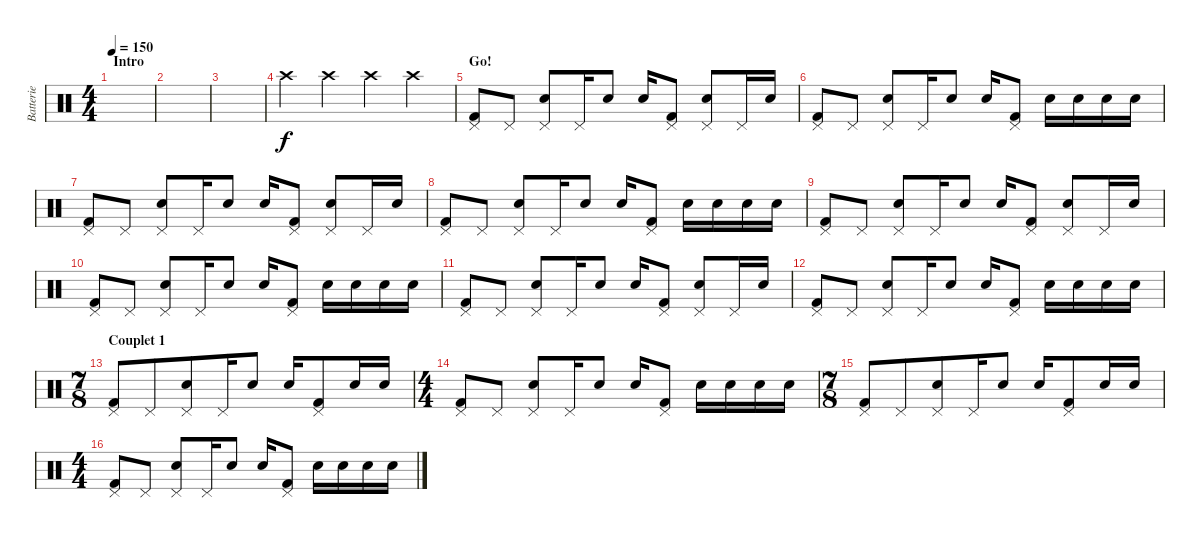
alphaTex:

\track ("Batterie" "Batterie") {instrument percussion}
\staff {score}
\articulation defaults
\ts (4 4)
\section ("" "Intro")
\tempo 150
\clef neutral
\ks c
|
|
|
"Crash high (hit)".4 "Crash high (hit)".4 "Crash high (hit)".4 "Crash high (hit)".4 |
\section ("" "Go!")
("Pedal Hi-Hat (hit)" "Kick (hit) 2").8 "Pedal Hi-Hat (hit)".8 ("Pedal Hi-Hat (hit)" "Electric Snare (hit)").8 "Pedal Hi-Hat (hit)".16 "Electric Snare (hit)".8 "Electric Snare (hit)".16 ("Pedal Hi-Hat (hit)" "Kick (hit) 2").8 ("Pedal Hi-Hat (hit)" "Electric Snare (hit)").8 "Pedal Hi-Hat (hit)".16 "Electric Snare (hit)".16 |
("Pedal Hi-Hat (hit)" "Kick (hit) 2").8 "Pedal Hi-Hat (hit)".8 ("Pedal Hi-Hat (hit)" "Electric Snare (hit)").8 "Pedal Hi-Hat (hit)".16 "Electric Snare (hit)".8 "Electric Snare (hit)".16 ("Pedal Hi-Hat (hit)" "Kick (hit) 2").8 "Electric Snare (hit)".16 "Electric Snare (hit)".16 "Electric Snare (hit)".16 "Electric Snare (hit)".16 |
("Pedal Hi-Hat (hit)" "Kick (hit) 2").8 "Pedal Hi-Hat (hit)".8 ("Pedal Hi-Hat (hit)" "Electric Snare (hit)").8 "Pedal Hi-Hat (hit)".16 "Electric Snare (hit)".8 "Electric Snare (hit)".16 ("Pedal Hi-Hat (hit)" "Kick (hit) 2").8 ("Pedal Hi-Hat (hit)" "Electric Snare (hit)").8 "Pedal Hi-Hat (hit)".16 "Electric Snare (hit)".16 |
("Pedal Hi-Hat (hit)" "Kick (hit) 2").8 "Pedal Hi-Hat (hit)".8 ("Pedal Hi-Hat (hit)" "Electric Snare (hit)").8 "Pedal Hi-Hat (hit)".16 "Electric Snare (hit)".8 "Electric Snare (hit)".16 ("Pedal Hi-Hat (hit)" "Kick (hit) 2").8 "Electric Snare (hit)".16 "Electric Snare (hit)".16 "Electric Snare (hit)".16 "Electric Snare (hit)".16 |
("Pedal Hi-Hat (hit)" "Kick (hit) 2").8 "Pedal Hi-Hat (hit)".8 ("Pedal Hi-Hat (hit)" "Electric Snare (hit)").8 "Pedal Hi-Hat (hit)".16 "Electric Snare (hit)".8 "Electric Snare (hit)".16 ("Pedal Hi-Hat (hit)" "Kick (hit) 2").8 ("Pedal Hi-Hat (hit)" "Electric Snare (hit)").8 "Pedal Hi-Hat (hit)".16 "Electric Snare (hit)".16 |
("Pedal Hi-Hat (hit)" "Kick (hit) 2").8 "Pedal Hi-Hat (hit)".8 ("Pedal Hi-Hat (hit)" "Electric Snare (hit)").8 "Pedal Hi-Hat (hit)".16 "Electric Snare (hit)".8 "Electric Snare (hit)".16 ("Pedal Hi-Hat (hit)" "Kick (hit) 2").8 "Electric Snare (hit)".16 "Electric Snare (hit)".16 "Electric Snare (hit)".16 "Electric Snare (hit)".16 |
("Pedal Hi-Hat (hit)" "Kick (hit) 2").8 "Pedal Hi-Hat (hit)".8 ("Pedal Hi-Hat (hit)" "Electric Snare (hit)").8 "Pedal Hi-Hat (hit)".16 "Electric Snare (hit)".8 "Electric Snare (hit)".16 ("Pedal Hi-Hat (hit)" "Kick (hit) 2").8 ("Pedal Hi-Hat (hit)" "Electric Snare (hit)").8 "Pedal Hi-Hat (hit)".16 "Electric Snare (hit)".16 |
("Pedal Hi-Hat (hit)" "Kick (hit) 2").8 "Pedal Hi-Hat (hit)".8 ("Pedal Hi-Hat (hit)" "Electric Snare (hit)").8 "Pedal Hi-Hat (hit)".16 "Electric Snare (hit)".8 "Electric Snare (hit)".16 ("Pedal Hi-Hat (hit)" "Kick (hit) 2").8 "Electric Snare (hit)".16 "Electric Snare (hit)".16 "Electric Snare (hit)".16 "Electric Snare (hit)".16 |
\ts (7 8)
\section ("" "Couplet 1")
("Pedal Hi-Hat (hit)" "Kick (hit) 2").8 "Pedal Hi-Hat (hit)".8 ("Pedal Hi-Hat (hit)" "Electric Snare (hit)").8 "Pedal Hi-Hat (hit)".16 "Electric Snare (hit)".8 "Electric Snare (hit)".16 ("Pedal Hi-Hat (hit)" "Kick (hit) 2").8 "Electric Snare (hit)".16 "Electric Snare (hit)".16 |
\ts (4 4)
("Pedal Hi-Hat (hit)" "Kick (hit) 2").8 "Pedal Hi-Hat (hit)".8 ("Pedal Hi-Hat (hit)" "Electric Snare (hit)").8 "Pedal Hi-Hat (hit)".16 "Electric Snare (hit)".8 "Electric Snare (hit)".16 ("Pedal Hi-Hat (hit)" "Kick (hit) 2").8 "Electric Snare (hit)".16 "Electric Snare (hit)".16 "Electric Snare (hit)".16 "Electric Snare (hit)".16 |
\ts (7 8)
("Pedal Hi-Hat (hit)" "Kick (hit) 2").8 "Pedal Hi-Hat (hit)".8 ("Pedal Hi-Hat (hit)" "Electric Snare (hit)").8 "Pedal Hi-Hat (hit)".16 "Electric Snare (hit)".8 "Electric Snare (hit)".16 ("Pedal Hi-Hat (hit)" "Kick (hit) 2").8 "Electric Snare (hit)".16 "Electric Snare (hit)".16 |
\ts (4 4)
("Pedal Hi-Hat (hit)" "Kick (hit) 2").8 "Pedal Hi-Hat (hit)".8 ("Pedal Hi-Hat (hit)" "Electric Snare (hit)").8 "Pedal Hi-Hat (hit)".16 "Electric Snare (hit)".8 "Electric Snare (hit)".16 ("Pedal Hi-Hat (hit)" "Kick (hit) 2").8 "Electric Snare (hit)".16 "Electric Snare (hit)".16 "Electric Snare (hit)".16 "Electric Snare (hit)".16
